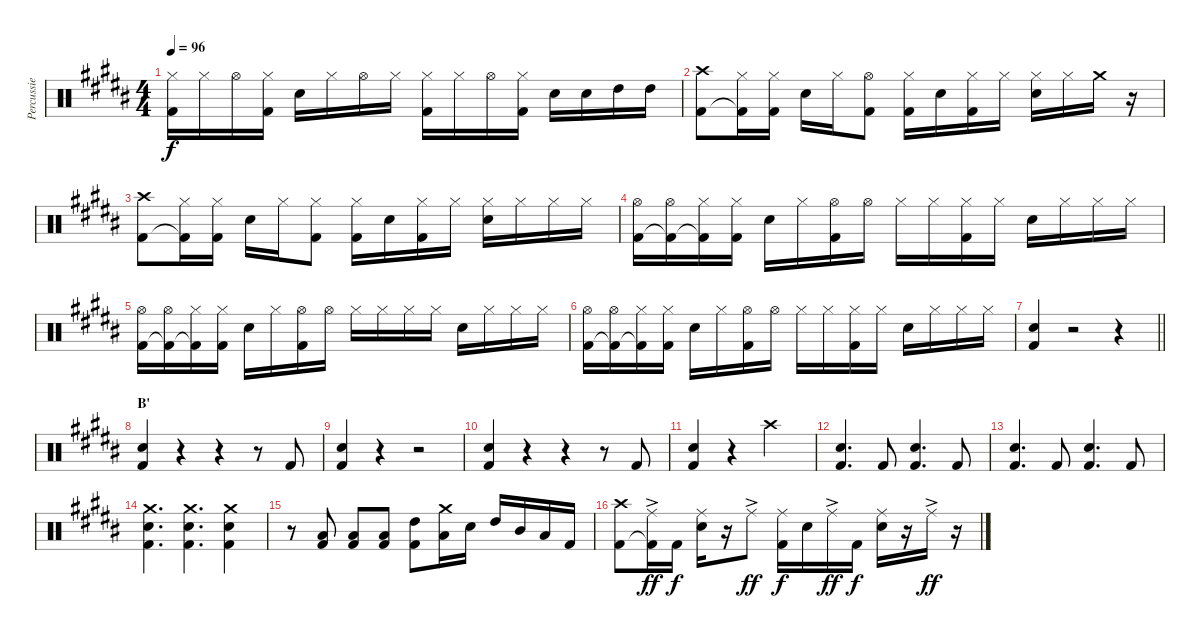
\track ("Percussie" "Percussie") {instrument percussion}
\staff {score}
\articulation defaults
\ts (4 4)
\tempo 96
\clef neutral
\ks b
("Hi-Hat (closed)" "Kick (hit) 2").16{dy f} "Hi-Hat (closed)".16 "Hi-Hat (open)".16 ("Hi-Hat (closed)" "Kick (hit) 2").16 "Electric Snare (hit)".16 "Hi-Hat (closed)".16 "Hi-Hat (open)".16 "Hi-Hat (closed)".16 ("Hi-Hat (closed)" "Kick (hit) 2").16 "Hi-Hat (closed)".16 "Hi-Hat (open)".16 ("Hi-Hat (closed)" "Kick (hit) 2").16 "Electric Snare (hit)".16 "Electric Snare (hit)".16 "High Tom (hit)".16 "High Tom (hit)".16 |
("Crash high (hit)" "Kick (hit) 2").8 ("Hi-Hat (closed)" "Kick (hit) 2"{t}).16 ("Hi-Hat (closed)" "Kick (hit) 2").16 "Electric Snare (hit)".16 "Hi-Hat (closed)".16 ("Hi-Hat (open)" "Kick (hit) 2").8 ("Hi-Hat (closed)" "Kick (hit) 2").16 "Electric Snare (hit)".16 ("Hi-Hat (closed)" "Kick (hit) 2").16 "Hi-Hat (closed)".16 ("Hi-Hat (closed)" "Electric Snare (hit)").16 "Hi-Hat (closed)".16 "Crash medium (hit)".16 r.16 |
("Crash high (hit)" "Kick (hit) 2").8 ("Hi-Hat (closed)" "Kick (hit) 2"{t}).16 ("Hi-Hat (closed)" "Kick (hit) 2").16 "Electric Snare (hit)".16 "Hi-Hat (closed)".16 ("Hi-Hat (closed)" "Kick (hit) 2").8 ("Hi-Hat (closed)" "Kick (hit) 2").16 "Electric Snare (hit)".16 ("Hi-Hat (closed)" "Kick (hit) 2").16 "Hi-Hat (closed)".16 ("Hi-Hat (closed)" "Electric Snare (hit)").16 "Hi-Hat (closed)".16 "Hi-Hat (closed)".16 "Hi-Hat (closed)".16 |
("Hi-Hat (open)" "Kick (hit) 2").16 ("Hi-Hat (open)" "Kick (hit) 2"{t}).16 ("Hi-Hat (closed)" "Kick (hit) 2"{t}).16 ("Hi-Hat (closed)" "Kick (hit) 2").16 "Electric Snare (hit)".16 "Hi-Hat (closed)".16 ("Hi-Hat (open)" "Kick (hit) 2").16 "Hi-Hat (open)".16 "Hi-Hat (closed)".16 "Hi-Hat (closed)".16 ("Hi-Hat (closed)" "Kick (hit) 2").16 "Hi-Hat (closed)".16 "Electric Snare (hit)".16 "Hi-Hat (closed)".16 "Hi-Hat (closed)".16 "Hi-Hat (closed)".16 |
("Hi-Hat (open)" "Kick (hit) 2").16 ("Hi-Hat (open)" "Kick (hit) 2"{t}).16 ("Hi-Hat (closed)" "Kick (hit) 2"{t}).16 ("Hi-Hat (closed)" "Kick (hit) 2").16 "Electric Snare (hit)".16 "Hi-Hat (closed)".16 ("Hi-Hat (open)" "Kick (hit) 2").16 "Hi-Hat (open)".16 "Hi-Hat (closed)".16 "Hi-Hat (closed)".16 "Hi-Hat (closed)".16 "Hi-Hat (closed)".16 "Electric Snare (hit)".16 "Hi-Hat (closed)".16 "Hi-Hat (closed)".16 "Hi-Hat (closed)".16 |
("Hi-Hat (open)" "Kick (hit) 2").16 ("Hi-Hat (open)" "Kick (hit) 2"{t}).16 ("Hi-Hat (closed)" "Kick (hit) 2"{t}).16 ("Hi-Hat (closed)" "Kick (hit) 2").16 "Electric Snare (hit)".16 "Hi-Hat (closed)".16 ("Hi-Hat (open)" "Kick (hit) 2").16 "Hi-Hat (open)".16 "Hi-Hat (closed)".16 "Hi-Hat (closed)".16 ("Hi-Hat (closed)" "Kick (hit) 2").16 "Hi-Hat (closed)".16 "Electric Snare (hit)".16 "Hi-Hat (closed)".16 "Hi-Hat (closed)".16 "Hi-Hat (closed)".16 |
\barLineRight lightlight
("Electric Snare (hit)" "Kick (hit) 2").4 r.2 r.4 |
\section ("" "B'")
("Electric Snare (hit)" "Kick (hit) 2").4 r.4 r.4 r.8 "Kick (hit) 2".8 |
("Electric Snare (hit)" "Kick (hit) 2").4 r.4 r.2 |
("Electric Snare (hit)" "Kick (hit) 2").4 r.4 r.4 r.8 "Kick (hit) 2".8 |
("Electric Snare (hit)" "Kick (hit) 2").4 r.4 "Crash high (hit)".2 |
("Electric Snare (hit)" "Kick (hit) 2").4{d} "Kick (hit) 2".8 ("Electric Snare (hit)" "Kick (hit) 2").4{d} "Kick (hit) 2".8 |
("Electric Snare (hit)" "Kick (hit) 2").4{d} "Kick (hit) 2".8 ("Electric Snare (hit)" "Kick (hit) 2").4{d} "Kick (hit) 2".8 |
("Crash medium (hit)" "Electric Snare (hit)" "Kick (hit) 2").4{d} ("Crash medium (hit)" "Electric Snare (hit)" "Kick (hit) 2").4{d} ("Crash medium (hit)" "Electric Snare (hit)" "Kick (hit) 2").4 |
r.8 ("Low Tom (hit)" "Kick (hit) 2").8 ("Low Tom (hit)" "Kick (hit) 2").8 ("Low Tom (hit)" "Kick (hit) 2").8 ("High Tom (hit)" "Kick (hit) 2").8 ("Crash medium (hit)" "Low Tom (hit)").16 "Electric Snare (hit)".16 "High Tom (hit)".16 "Mid Tom (hit)".16 "Low Tom (hit)".16 "Kick (hit) 2".16 |
("Crash high (hit)" "Kick (hit) 2").8 ("Ride (middle)"{ac} "Kick (hit) 2"{t}).16{dy ff} "Kick (hit) 2".16{dy f} ("Ride (middle)" "Electric Snare (hit)").16 r.16 "Ride (middle)"{ac}.8{dy ff} ("Ride (middle)" "Kick (hit) 2").16{dy f} "Electric Snare (hit)".16 "Ride (middle)"{ac}.16{dy ff} "Kick (hit) 2".16{dy f} ("Ride (middle)" "Electric Snare (hit)").16 r.16 "Ride (middle)"{ac}.16{dy ff} r.16
